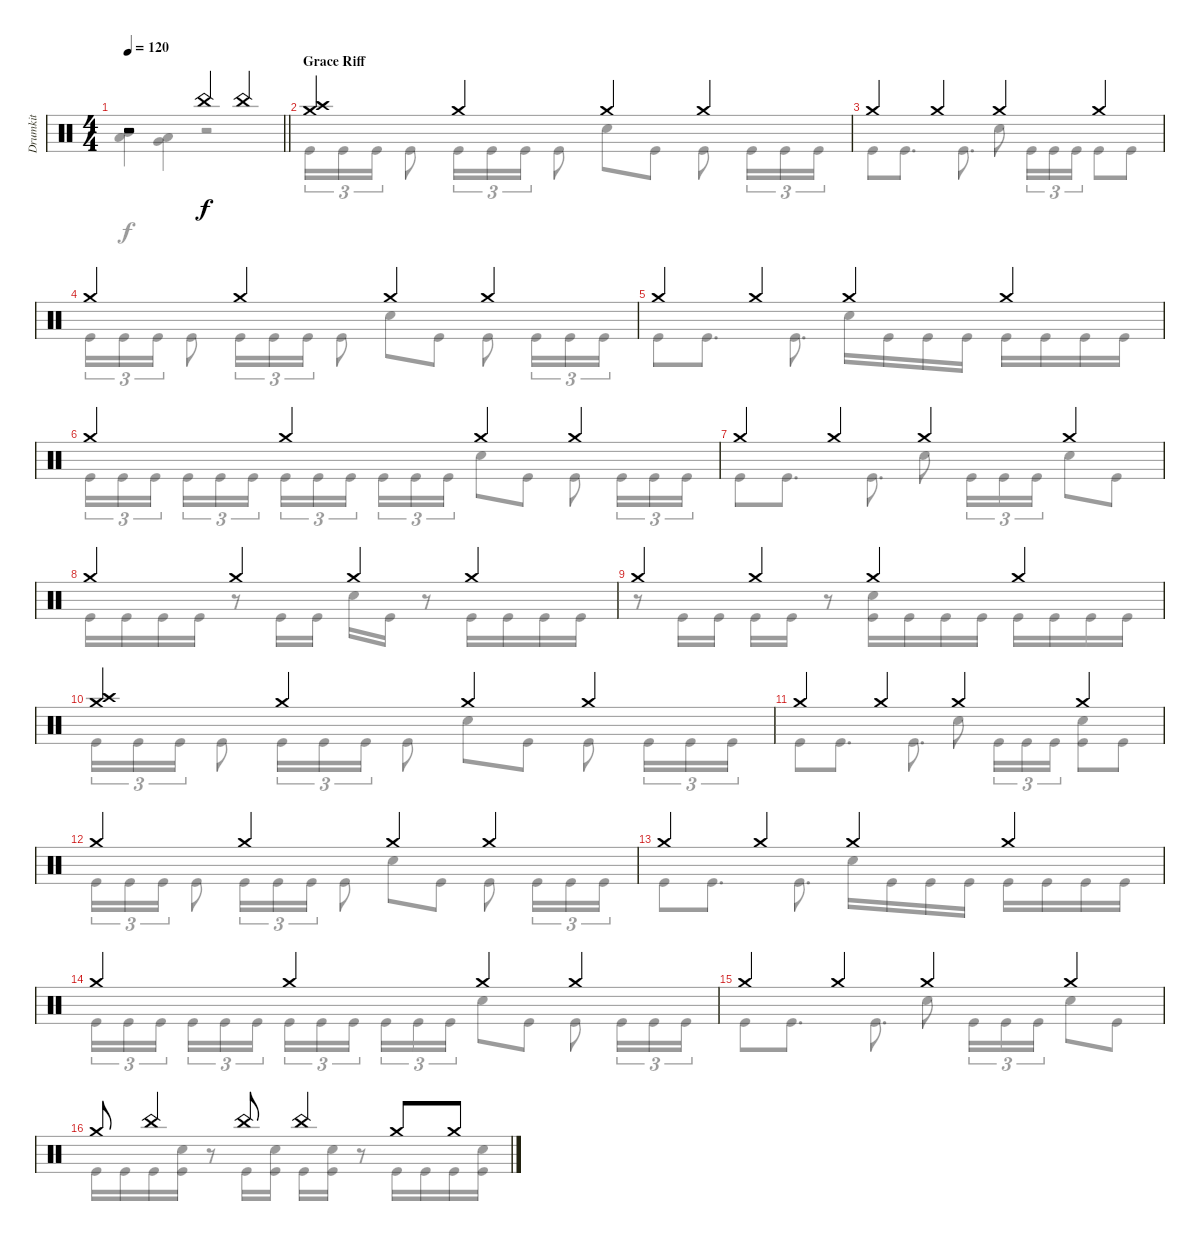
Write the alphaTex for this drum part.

\track ("Drumkit" "Drumkit") {instrument percussion}
\staff {score}
\articulation defaults
\voice
\ts (4 4)
\tempo 120
\clef neutral
\barLineRight lightlight
\ks c
r.2{dy f} "China (hit)".4 "China (hit)".4 |
\section ("" "Grace Riff")
("Crash high (hit)" "Crash medium (hit)").4 "Crash medium (hit)".4 "Crash medium (hit)".4 "Crash medium (hit)".4 |
"Crash medium (hit)".4 "Crash medium (hit)".4 "Crash medium (hit)".4 "Crash medium (hit)".4 |
"Crash medium (hit)".4 "Crash medium (hit)".4 "Crash medium (hit)".4 "Crash medium (hit)".4 |
"Crash medium (hit)".4 "Crash medium (hit)".4 "Crash medium (hit)".4 "Crash medium (hit)".4 |
"Crash medium (hit)".4 "Crash medium (hit)".4 "Crash medium (hit)".4 "Crash medium (hit)".4 |
"Crash medium (hit)".4 "Crash medium (hit)".4 "Crash medium (hit)".4 "Crash medium (hit)".4 |
"Crash medium (hit)".4 "Crash medium (hit)".4 "Crash medium (hit)".4 "Crash medium (hit)".4 |
"Crash medium (hit)".4 "Crash medium (hit)".4 "Crash medium (hit)".4 "Crash medium (hit)".4 |
("Crash high (hit)" "Crash medium (hit)").4 "Crash medium (hit)".4 "Crash medium (hit)".4 "Crash medium (hit)".4 |
"Crash medium (hit)".4 "Crash medium (hit)".4 "Crash medium (hit)".4 "Crash medium (hit)".4 |
"Crash medium (hit)".4 "Crash medium (hit)".4 "Crash medium (hit)".4 "Crash medium (hit)".4 |
"Crash medium (hit)".4 "Crash medium (hit)".4 "Crash medium (hit)".4 "Crash medium (hit)".4 |
"Crash medium (hit)".4 "Crash medium (hit)".4 "Crash medium (hit)".4 "Crash medium (hit)".4 |
"Crash medium (hit)".4 "Crash medium (hit)".4 "Crash medium (hit)".4 "Crash medium (hit)".4 |
"Crash medium (hit)".8 "China (hit)".4 "China (hit)".8 "China (hit)".4 "Crash medium (hit)".8 "Crash medium (hit)".8
\voice
\clef neutral
\ottava regular
\simile none
\barLineRight lightlight
\ks c
("Mid Tom (hit)" "Low Tom (hit)").4{dy f} ("Very Low Tom (hit)" "Low Floor Tom (hit)").4 r.2 |
"Kick (hit)".16{tu (3 2)} "Kick (hit)".16{tu (3 2)} "Kick (hit)".16{tu (3 2)} "Kick (hit)".8 "Kick (hit)".16{tu (3 2)} "Kick (hit)".16{tu (3 2)} "Kick (hit)".16{tu (3 2)} "Kick (hit)".8 "Snare (hit) 2".8 "Kick (hit)".8 "Kick (hit)".8 "Kick (hit)".16{tu (3 2)} "Kick (hit)".16{tu (3 2)} "Kick (hit)".16{tu (3 2)} |
"Kick (hit)".8 "Kick (hit)".8{d} "Kick (hit)".8{d} "Snare (hit) 2".8 "Kick (hit)".16{tu (3 2)} "Kick (hit)".16{tu (3 2)} "Kick (hit)".16{tu (3 2)} "Kick (hit)".8 "Kick (hit)".8 |
"Kick (hit)".16{tu (3 2)} "Kick (hit)".16{tu (3 2)} "Kick (hit)".16{tu (3 2)} "Kick (hit)".8 "Kick (hit)".16{tu (3 2)} "Kick (hit)".16{tu (3 2)} "Kick (hit)".16{tu (3 2)} "Kick (hit)".8 "Snare (hit) 2".8 "Kick (hit)".8 "Kick (hit)".8 "Kick (hit)".16{tu (3 2)} "Kick (hit)".16{tu (3 2)} "Kick (hit)".16{tu (3 2)} |
"Kick (hit)".8 "Kick (hit)".8{d} "Kick (hit)".8{d} "Snare (hit) 2".16 "Kick (hit)".16 "Kick (hit)".16 "Kick (hit)".16 "Kick (hit)".16 "Kick (hit)".16 "Kick (hit)".16 "Kick (hit)".16 |
"Kick (hit)".16{tu (3 2)} "Kick (hit)".16{tu (3 2)} "Kick (hit)".16{tu (3 2) beam splitsecondary} "Kick (hit)".16{tu (3 2)} "Kick (hit)".16{tu (3 2)} "Kick (hit)".16{tu (3 2)} "Kick (hit)".16{tu (3 2)} "Kick (hit)".16{tu (3 2)} "Kick (hit)".16{tu (3 2) beam splitsecondary} "Kick (hit)".16{tu (3 2)} "Kick (hit)".16{tu (3 2)} "Kick (hit)".16{tu (3 2)} "Snare (hit) 2".8 "Kick (hit)".8 "Kick (hit)".8 "Kick (hit)".16{tu (3 2)} "Kick (hit)".16{tu (3 2)} "Kick (hit)".16{tu (3 2)} |
"Kick (hit)".8 "Kick (hit)".8{d} "Kick (hit)".8{d} "Snare (hit) 2".8 "Kick (hit)".16{tu (3 2)} "Kick (hit)".16{tu (3 2)} "Kick (hit)".16{tu (3 2)} "Snare (hit) 2".8 "Kick (hit)".8 |
"Kick (hit)".16 "Kick (hit)".16 "Kick (hit)".16 "Kick (hit)".16 r.8 "Kick (hit)".16 "Kick (hit)".16 "Snare (hit) 2".16 "Kick (hit)".16 r.8 "Kick (hit)".16 "Kick (hit)".16 "Kick (hit)".16 "Kick (hit)".16 |
r.8 "Kick (hit)".16 "Kick (hit)".16 "Kick (hit)".16 "Kick (hit)".16 r.8 ("Snare (hit) 2" "Kick (hit)").16 "Kick (hit)".16 "Kick (hit)".16 "Kick (hit)".16 "Kick (hit)".16 "Kick (hit)".16 "Kick (hit)".16 "Kick (hit)".16 |
"Kick (hit)".16{tu (3 2)} "Kick (hit)".16{tu (3 2)} "Kick (hit)".16{tu (3 2)} "Kick (hit)".8 "Kick (hit)".16{tu (3 2)} "Kick (hit)".16{tu (3 2)} "Kick (hit)".16{tu (3 2)} "Kick (hit)".8 "Snare (hit) 2".8 "Kick (hit)".8 "Kick (hit)".8 "Kick (hit)".16{tu (3 2)} "Kick (hit)".16{tu (3 2)} "Kick (hit)".16{tu (3 2)} |
"Kick (hit)".8 "Kick (hit)".8{d} "Kick (hit)".8{d} "Snare (hit) 2".8 "Kick (hit)".16{tu (3 2)} "Kick (hit)".16{tu (3 2)} "Kick (hit)".16{tu (3 2)} ("Snare (hit) 2" "Kick (hit)").8 "Kick (hit)".8 |
"Kick (hit)".16{tu (3 2)} "Kick (hit)".16{tu (3 2)} "Kick (hit)".16{tu (3 2)} "Kick (hit)".8 "Kick (hit)".16{tu (3 2)} "Kick (hit)".16{tu (3 2)} "Kick (hit)".16{tu (3 2)} "Kick (hit)".8 "Snare (hit) 2".8 "Kick (hit)".8 "Kick (hit)".8 "Kick (hit)".16{tu (3 2)} "Kick (hit)".16{tu (3 2)} "Kick (hit)".16{tu (3 2)} |
"Kick (hit)".8 "Kick (hit)".8{d} "Kick (hit)".8{d} "Snare (hit) 2".16 "Kick (hit)".16 "Kick (hit)".16 "Kick (hit)".16 "Kick (hit)".16 "Kick (hit)".16 "Kick (hit)".16 "Kick (hit)".16 |
"Kick (hit)".16{tu (3 2)} "Kick (hit)".16{tu (3 2)} "Kick (hit)".16{tu (3 2) beam splitsecondary} "Kick (hit)".16{tu (3 2)} "Kick (hit)".16{tu (3 2)} "Kick (hit)".16{tu (3 2)} "Kick (hit)".16{tu (3 2)} "Kick (hit)".16{tu (3 2)} "Kick (hit)".16{tu (3 2) beam splitsecondary} "Kick (hit)".16{tu (3 2)} "Kick (hit)".16{tu (3 2)} "Kick (hit)".16{tu (3 2)} "Snare (hit) 2".8 "Kick (hit)".8 "Kick (hit)".8 "Kick (hit)".16{tu (3 2)} "Kick (hit)".16{tu (3 2)} "Kick (hit)".16{tu (3 2)} |
"Kick (hit)".8 "Kick (hit)".8{d} "Kick (hit)".8{d} "Snare (hit) 2".8 "Kick (hit)".16{tu (3 2)} "Kick (hit)".16{tu (3 2)} "Kick (hit)".16{tu (3 2)} "Snare (hit) 2".8 "Kick (hit)".8 |
"Kick (hit)".16 "Kick (hit)".16 "Kick (hit)".16 ("Snare (hit) 2" "Kick (hit)").16 r.8 "Kick (hit)".16 ("Snare (hit) 2" "Kick (hit)").16 "Kick (hit)".16 ("Snare (hit) 2" "Kick (hit)").16 r.8 "Kick (hit)".16 "Kick (hit)".16 "Kick (hit)".16 ("Snare (hit) 2" "Kick (hit)").16
